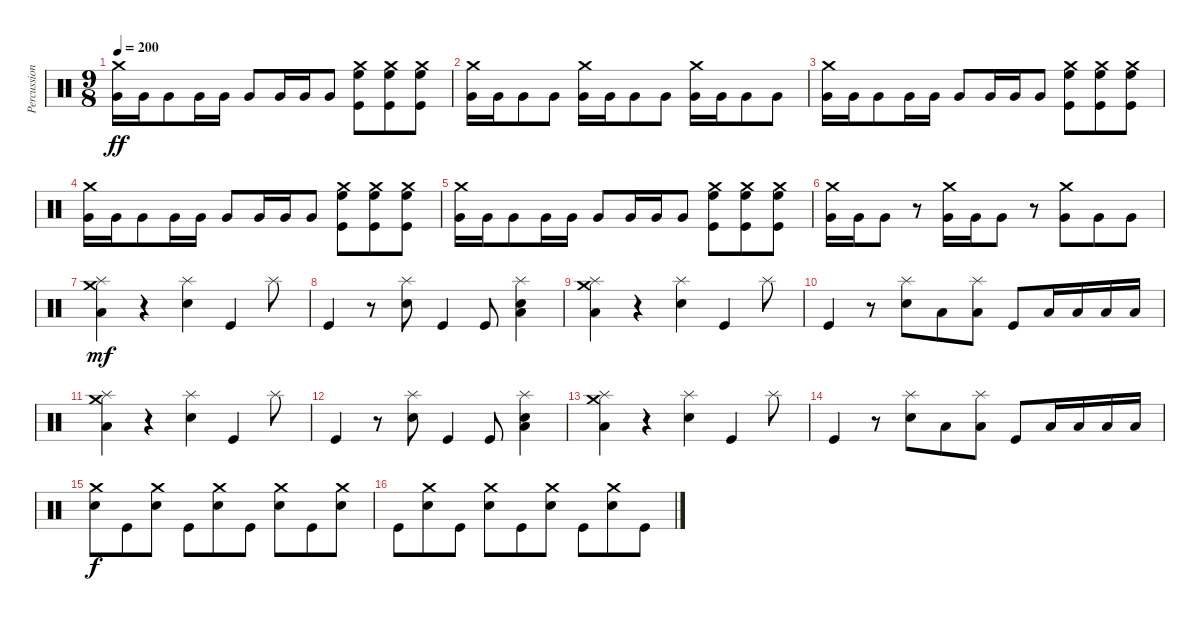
\track ("Percussion" "Percussion") {instrument percussion}
\staff {score}
\articulation defaults
\ts (9 8)
\tempo 200
\clef neutral
\ks c
("Crash medium (hit)" "Very Low Tom (hit)").16{dy ff} "Very Low Tom (hit)".16 "Very Low Tom (hit)".8 "Very Low Tom (hit)".16 "Very Low Tom (hit)".16 "Very Low Tom (hit)".8 "Very Low Tom (hit)".16 "Very Low Tom (hit)".16 "Very Low Tom (hit)".8 ("Crash medium (hit)" "High Floor Tom (hit)" "Kick (hit)").8 ("Crash medium (hit)" "High Floor Tom (hit)" "Kick (hit)").8 ("Crash medium (hit)" "High Floor Tom (hit)" "Kick (hit)").8 |
("Crash medium (hit)" "Very Low Tom (hit)").16 "Very Low Tom (hit)".16 "Very Low Tom (hit)".8 "Very Low Tom (hit)".8 ("Crash medium (hit)" "Very Low Tom (hit)").16 "Very Low Tom (hit)".16 "Very Low Tom (hit)".8 "Very Low Tom (hit)".8 ("Crash medium (hit)" "Very Low Tom (hit)").16 "Very Low Tom (hit)".16 "Very Low Tom (hit)".8 "Very Low Tom (hit)".8 |
("Crash medium (hit)" "Very Low Tom (hit)").16 "Very Low Tom (hit)".16 "Very Low Tom (hit)".8 "Very Low Tom (hit)".16 "Very Low Tom (hit)".16 "Very Low Tom (hit)".8 "Very Low Tom (hit)".16 "Very Low Tom (hit)".16 "Very Low Tom (hit)".8 ("Crash medium (hit)" "High Floor Tom (hit)" "Kick (hit)").8 ("Crash medium (hit)" "High Floor Tom (hit)" "Kick (hit)").8 ("Crash medium (hit)" "High Floor Tom (hit)" "Kick (hit)").8 |
("Crash medium (hit)" "Very Low Tom (hit)").16 "Very Low Tom (hit)".16 "Very Low Tom (hit)".8 "Very Low Tom (hit)".16 "Very Low Tom (hit)".16 "Very Low Tom (hit)".8 "Very Low Tom (hit)".16 "Very Low Tom (hit)".16 "Very Low Tom (hit)".8 ("Crash medium (hit)" "High Floor Tom (hit)" "Kick (hit)").8 ("Crash medium (hit)" "High Floor Tom (hit)" "Kick (hit)").8 ("Crash medium (hit)" "High Floor Tom (hit)" "Kick (hit)").8 |
("Crash medium (hit)" "Very Low Tom (hit)").16 "Very Low Tom (hit)".16 "Very Low Tom (hit)".8 "Very Low Tom (hit)".16 "Very Low Tom (hit)".16 "Very Low Tom (hit)".8 "Very Low Tom (hit)".16 "Very Low Tom (hit)".16 "Very Low Tom (hit)".8 ("Crash medium (hit)" "High Floor Tom (hit)" "Kick (hit)").8 ("Crash medium (hit)" "High Floor Tom (hit)" "Kick (hit)").8 ("Crash medium (hit)" "High Floor Tom (hit)" "Kick (hit)").8 |
("Crash medium (hit)" "Very Low Tom (hit)").16 "Very Low Tom (hit)".16 "Very Low Tom (hit)".8 r.8 ("Crash medium (hit)" "Very Low Tom (hit)").16 "Very Low Tom (hit)".16 "Very Low Tom (hit)".8 r.8 ("Crash medium (hit)" "Very Low Tom (hit)").8 "Very Low Tom (hit)".8 "Very Low Tom (hit)".8 |
("Crash medium (hit)" "Splash (hit)" "Low Floor Tom (hit)").4{dy mf} r.4 ("Splash (hit)" "Electric Snare (hit)").4 "Kick (hit)".4 "Splash (hit)".8 |
"Kick (hit)".4 r.8 ("Splash (hit)" "Electric Snare (hit)").8 "Kick (hit)".4 "Kick (hit)".8 ("Splash (hit)" "Electric Snare (hit)" "Low Floor Tom (hit)").4 |
("Crash medium (hit)" "Splash (hit)" "Low Floor Tom (hit)").4 r.4 ("Splash (hit)" "Electric Snare (hit)").4 "Kick (hit)".4 "Splash (hit)".8 |
"Kick (hit)".4 r.8 ("Splash (hit)" "Electric Snare (hit)").8 "Low Tom (hit)".8 ("Splash (hit)" "Low Tom (hit)").8 "Kick (hit)".8 "Low Floor Tom (hit)".16 "Low Floor Tom (hit)".16 "Low Floor Tom (hit)".16 "Low Floor Tom (hit)".16 |
("Crash medium (hit)" "Splash (hit)" "Low Floor Tom (hit)").4 r.4 ("Splash (hit)" "Electric Snare (hit)").4 "Kick (hit)".4 "Splash (hit)".8 |
"Kick (hit)".4 r.8 ("Splash (hit)" "Electric Snare (hit)").8 "Kick (hit)".4 "Kick (hit)".8 ("Splash (hit)" "Electric Snare (hit)" "Low Floor Tom (hit)").4 |
("Crash medium (hit)" "Splash (hit)" "Low Floor Tom (hit)").4 r.4 ("Splash (hit)" "Electric Snare (hit)").4 "Kick (hit)".4 "Splash (hit)".8 |
"Kick (hit)".4 r.8 ("Splash (hit)" "Electric Snare (hit)").8 "Low Tom (hit)".8 ("Splash (hit)" "Low Tom (hit)").8 "Kick (hit)".8 "Low Floor Tom (hit)".16 "Low Floor Tom (hit)".16 "Low Floor Tom (hit)".16 "Low Floor Tom (hit)".16 |
("Crash medium (hit)" "Electric Snare (hit)").8{dy f} "Kick (hit)".8 ("Crash medium (hit)" "Electric Snare (hit)").8 "Kick (hit)".8 ("Crash medium (hit)" "Electric Snare (hit)").8 "Kick (hit)".8 ("Crash medium (hit)" "Electric Snare (hit)").8 "Kick (hit)".8 ("Crash medium (hit)" "Electric Snare (hit)").8 |
"Kick (hit)".8 ("Crash medium (hit)" "Electric Snare (hit)").8 "Kick (hit)".8 ("Crash medium (hit)" "Electric Snare (hit)").8 "Kick (hit)".8 ("Crash medium (hit)" "Electric Snare (hit)").8 "Kick (hit)".8 ("Crash medium (hit)" "Electric Snare (hit)").8 "Kick (hit)".8
